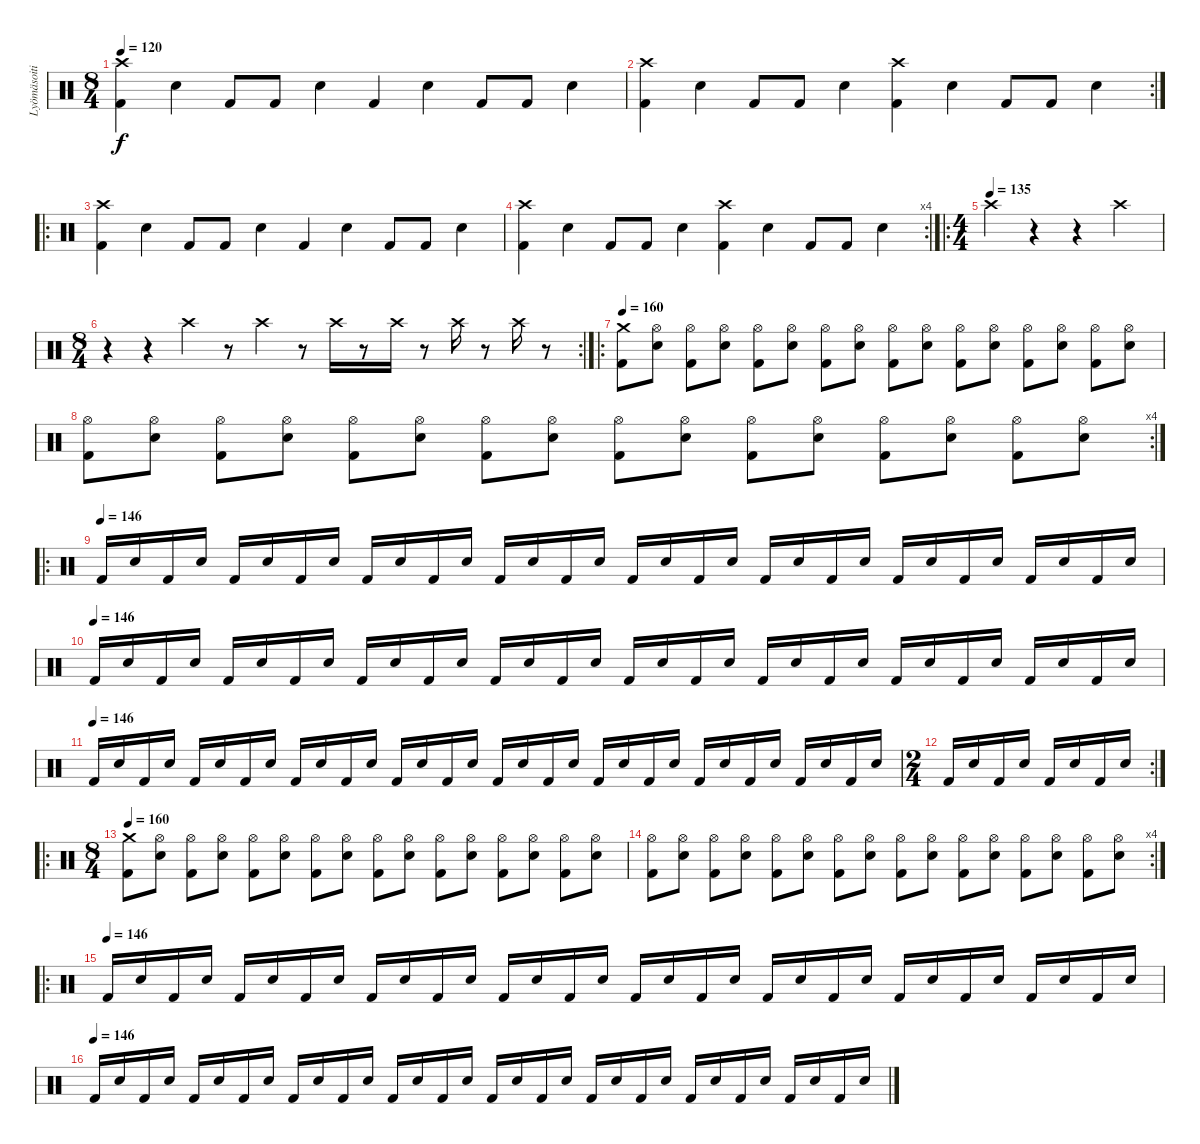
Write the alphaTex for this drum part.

\track ("Lyömäsoitin" "Lyömäsoiti") {instrument percussion}
\staff {score}
\articulation defaults
\ts (8 4)
\tempo 120
\clef neutral
\ks c
("Crash high (hit)" "Kick (hit) 2").4{dy f} "Snare (hit) 2".4 "Kick (hit) 2".8 "Kick (hit) 2".8 "Snare (hit) 2".4 "Kick (hit) 2".4 "Snare (hit) 2".4 "Kick (hit) 2".8 "Kick (hit) 2".8 "Snare (hit) 2".4 |
\rc 2
("Crash high (hit)" "Kick (hit) 2").4 "Snare (hit) 2".4 "Kick (hit) 2".8 "Kick (hit) 2".8 "Snare (hit) 2".4 ("Crash high (hit)" "Kick (hit) 2").4 "Snare (hit) 2".4 "Kick (hit) 2".8 "Kick (hit) 2".8 "Snare (hit) 2".4 |
\ro
("Crash high (hit)" "Kick (hit) 2").4 "Snare (hit) 2".4 "Kick (hit) 2".8 "Kick (hit) 2".8 "Snare (hit) 2".4 "Kick (hit) 2".4 "Snare (hit) 2".4 "Kick (hit) 2".8 "Kick (hit) 2".8 "Snare (hit) 2".4 |
\rc 4
("Crash high (hit)" "Kick (hit) 2").4 "Snare (hit) 2".4 "Kick (hit) 2".8 "Kick (hit) 2".8 "Snare (hit) 2".4 ("Crash high (hit)" "Kick (hit) 2").4 "Snare (hit) 2".4 "Kick (hit) 2".8 "Kick (hit) 2".8 "Snare (hit) 2".4 |
\ro
\ts (4 4)
\tempo (135)
"Crash high (hit)".4 r.4 r.4 "Crash high (hit)".4 |
\rc 2
\ts (8 4)
r.4 r.4 "Crash high (hit)".4 r.8 "Crash high (hit)".4 r.8 "Crash high (hit)".16 r.8 "Crash high (hit)".16 r.8 "Crash high (hit)".16 r.8 "Crash high (hit)".16 r.8 |
\ro
\tempo 160
("Crash medium (hit)" "Kick (hit) 2").8 ("Hi-Hat (open)" "Snare (hit) 2").8 ("Hi-Hat (open)" "Kick (hit) 2").8 ("Hi-Hat (open)" "Snare (hit) 2").8 ("Hi-Hat (open)" "Kick (hit) 2").8 ("Hi-Hat (open)" "Snare (hit) 2").8 ("Hi-Hat (open)" "Kick (hit) 2").8 ("Hi-Hat (open)" "Snare (hit) 2").8 ("Hi-Hat (open)" "Kick (hit) 2").8 ("Hi-Hat (open)" "Snare (hit) 2").8 ("Hi-Hat (open)" "Kick (hit) 2").8 ("Hi-Hat (open)" "Snare (hit) 2").8 ("Hi-Hat (open)" "Kick (hit) 2").8 ("Hi-Hat (open)" "Snare (hit) 2").8 ("Hi-Hat (open)" "Kick (hit) 2").8 ("Hi-Hat (open)" "Snare (hit) 2").8 |
\rc 4
("Hi-Hat (open)" "Kick (hit) 2").8 ("Hi-Hat (open)" "Snare (hit) 2").8 ("Hi-Hat (open)" "Kick (hit) 2").8 ("Hi-Hat (open)" "Snare (hit) 2").8 ("Hi-Hat (open)" "Kick (hit) 2").8 ("Hi-Hat (open)" "Snare (hit) 2").8 ("Hi-Hat (open)" "Kick (hit) 2").8 ("Hi-Hat (open)" "Snare (hit) 2").8 ("Hi-Hat (open)" "Kick (hit) 2").8 ("Hi-Hat (open)" "Snare (hit) 2").8 ("Hi-Hat (open)" "Kick (hit) 2").8 ("Hi-Hat (open)" "Snare (hit) 2").8 ("Hi-Hat (open)" "Kick (hit) 2").8 ("Hi-Hat (open)" "Snare (hit) 2").8 ("Hi-Hat (open)" "Kick (hit) 2").8 ("Hi-Hat (open)" "Snare (hit) 2").8 |
\ro
\tempo (146)
"Kick (hit) 2".16 "Snare (hit) 2".16 "Kick (hit) 2".16 "Snare (hit) 2".16 "Kick (hit) 2".16 "Snare (hit) 2".16 "Kick (hit) 2".16 "Snare (hit) 2".16 "Kick (hit) 2".16 "Snare (hit) 2".16 "Kick (hit) 2".16 "Snare (hit) 2".16 "Kick (hit) 2".16 "Snare (hit) 2".16 "Kick (hit) 2".16 "Snare (hit) 2".16 "Kick (hit) 2".16 "Snare (hit) 2".16 "Kick (hit) 2".16 "Snare (hit) 2".16 "Kick (hit) 2".16 "Snare (hit) 2".16 "Kick (hit) 2".16 "Snare (hit) 2".16 "Kick (hit) 2".16 "Snare (hit) 2".16 "Kick (hit) 2".16 "Snare (hit) 2".16 "Kick (hit) 2".16 "Snare (hit) 2".16 "Kick (hit) 2".16 "Snare (hit) 2".16 |
\tempo (146)
"Kick (hit) 2".16 "Snare (hit) 2".16 "Kick (hit) 2".16 "Snare (hit) 2".16 "Kick (hit) 2".16 "Snare (hit) 2".16 "Kick (hit) 2".16 "Snare (hit) 2".16 "Kick (hit) 2".16 "Snare (hit) 2".16 "Kick (hit) 2".16 "Snare (hit) 2".16 "Kick (hit) 2".16 "Snare (hit) 2".16 "Kick (hit) 2".16 "Snare (hit) 2".16 "Kick (hit) 2".16 "Snare (hit) 2".16 "Kick (hit) 2".16 "Snare (hit) 2".16 "Kick (hit) 2".16 "Snare (hit) 2".16 "Kick (hit) 2".16 "Snare (hit) 2".16 "Kick (hit) 2".16 "Snare (hit) 2".16 "Kick (hit) 2".16 "Snare (hit) 2".16 "Kick (hit) 2".16 "Snare (hit) 2".16 "Kick (hit) 2".16 "Snare (hit) 2".16 |
\tempo (146)
"Kick (hit) 2".16 "Snare (hit) 2".16 "Kick (hit) 2".16 "Snare (hit) 2".16 "Kick (hit) 2".16 "Snare (hit) 2".16 "Kick (hit) 2".16 "Snare (hit) 2".16 "Kick (hit) 2".16 "Snare (hit) 2".16 "Kick (hit) 2".16 "Snare (hit) 2".16 "Kick (hit) 2".16 "Snare (hit) 2".16 "Kick (hit) 2".16 "Snare (hit) 2".16 "Kick (hit) 2".16 "Snare (hit) 2".16 "Kick (hit) 2".16 "Snare (hit) 2".16 "Kick (hit) 2".16 "Snare (hit) 2".16 "Kick (hit) 2".16 "Snare (hit) 2".16 "Kick (hit) 2".16 "Snare (hit) 2".16 "Kick (hit) 2".16 "Snare (hit) 2".16 "Kick (hit) 2".16 "Snare (hit) 2".16 "Kick (hit) 2".16 "Snare (hit) 2".16 |
\rc 2
\ts (2 4)
"Kick (hit) 2".16 "Snare (hit) 2".16 "Kick (hit) 2".16 "Snare (hit) 2".16 "Kick (hit) 2".16 "Snare (hit) 2".16 "Kick (hit) 2".16 "Snare (hit) 2".16 |
\ro
\ts (8 4)
\tempo 160
("Crash medium (hit)" "Kick (hit) 2").8 ("Hi-Hat (open)" "Snare (hit) 2").8 ("Hi-Hat (open)" "Kick (hit) 2").8 ("Hi-Hat (open)" "Snare (hit) 2").8 ("Hi-Hat (open)" "Kick (hit) 2").8 ("Hi-Hat (open)" "Snare (hit) 2").8 ("Hi-Hat (open)" "Kick (hit) 2").8 ("Hi-Hat (open)" "Snare (hit) 2").8 ("Hi-Hat (open)" "Kick (hit) 2").8 ("Hi-Hat (open)" "Snare (hit) 2").8 ("Hi-Hat (open)" "Kick (hit) 2").8 ("Hi-Hat (open)" "Snare (hit) 2").8 ("Hi-Hat (open)" "Kick (hit) 2").8 ("Hi-Hat (open)" "Snare (hit) 2").8 ("Hi-Hat (open)" "Kick (hit) 2").8 ("Hi-Hat (open)" "Snare (hit) 2").8 |
\rc 4
("Hi-Hat (open)" "Kick (hit) 2").8 ("Hi-Hat (open)" "Snare (hit) 2").8 ("Hi-Hat (open)" "Kick (hit) 2").8 ("Hi-Hat (open)" "Snare (hit) 2").8 ("Hi-Hat (open)" "Kick (hit) 2").8 ("Hi-Hat (open)" "Snare (hit) 2").8 ("Hi-Hat (open)" "Kick (hit) 2").8 ("Hi-Hat (open)" "Snare (hit) 2").8 ("Hi-Hat (open)" "Kick (hit) 2").8 ("Hi-Hat (open)" "Snare (hit) 2").8 ("Hi-Hat (open)" "Kick (hit) 2").8 ("Hi-Hat (open)" "Snare (hit) 2").8 ("Hi-Hat (open)" "Kick (hit) 2").8 ("Hi-Hat (open)" "Snare (hit) 2").8 ("Hi-Hat (open)" "Kick (hit) 2").8 ("Hi-Hat (open)" "Snare (hit) 2").8 |
\ro
\tempo (146)
"Kick (hit) 2".16 "Snare (hit) 2".16 "Kick (hit) 2".16 "Snare (hit) 2".16 "Kick (hit) 2".16 "Snare (hit) 2".16 "Kick (hit) 2".16 "Snare (hit) 2".16 "Kick (hit) 2".16 "Snare (hit) 2".16 "Kick (hit) 2".16 "Snare (hit) 2".16 "Kick (hit) 2".16 "Snare (hit) 2".16 "Kick (hit) 2".16 "Snare (hit) 2".16 "Kick (hit) 2".16 "Snare (hit) 2".16 "Kick (hit) 2".16 "Snare (hit) 2".16 "Kick (hit) 2".16 "Snare (hit) 2".16 "Kick (hit) 2".16 "Snare (hit) 2".16 "Kick (hit) 2".16 "Snare (hit) 2".16 "Kick (hit) 2".16 "Snare (hit) 2".16 "Kick (hit) 2".16 "Snare (hit) 2".16 "Kick (hit) 2".16 "Snare (hit) 2".16 |
\tempo (146)
"Kick (hit) 2".16 "Snare (hit) 2".16 "Kick (hit) 2".16 "Snare (hit) 2".16 "Kick (hit) 2".16 "Snare (hit) 2".16 "Kick (hit) 2".16 "Snare (hit) 2".16 "Kick (hit) 2".16 "Snare (hit) 2".16 "Kick (hit) 2".16 "Snare (hit) 2".16 "Kick (hit) 2".16 "Snare (hit) 2".16 "Kick (hit) 2".16 "Snare (hit) 2".16 "Kick (hit) 2".16 "Snare (hit) 2".16 "Kick (hit) 2".16 "Snare (hit) 2".16 "Kick (hit) 2".16 "Snare (hit) 2".16 "Kick (hit) 2".16 "Snare (hit) 2".16 "Kick (hit) 2".16 "Snare (hit) 2".16 "Kick (hit) 2".16 "Snare (hit) 2".16 "Kick (hit) 2".16 "Snare (hit) 2".16 "Kick (hit) 2".16 "Snare (hit) 2".16
